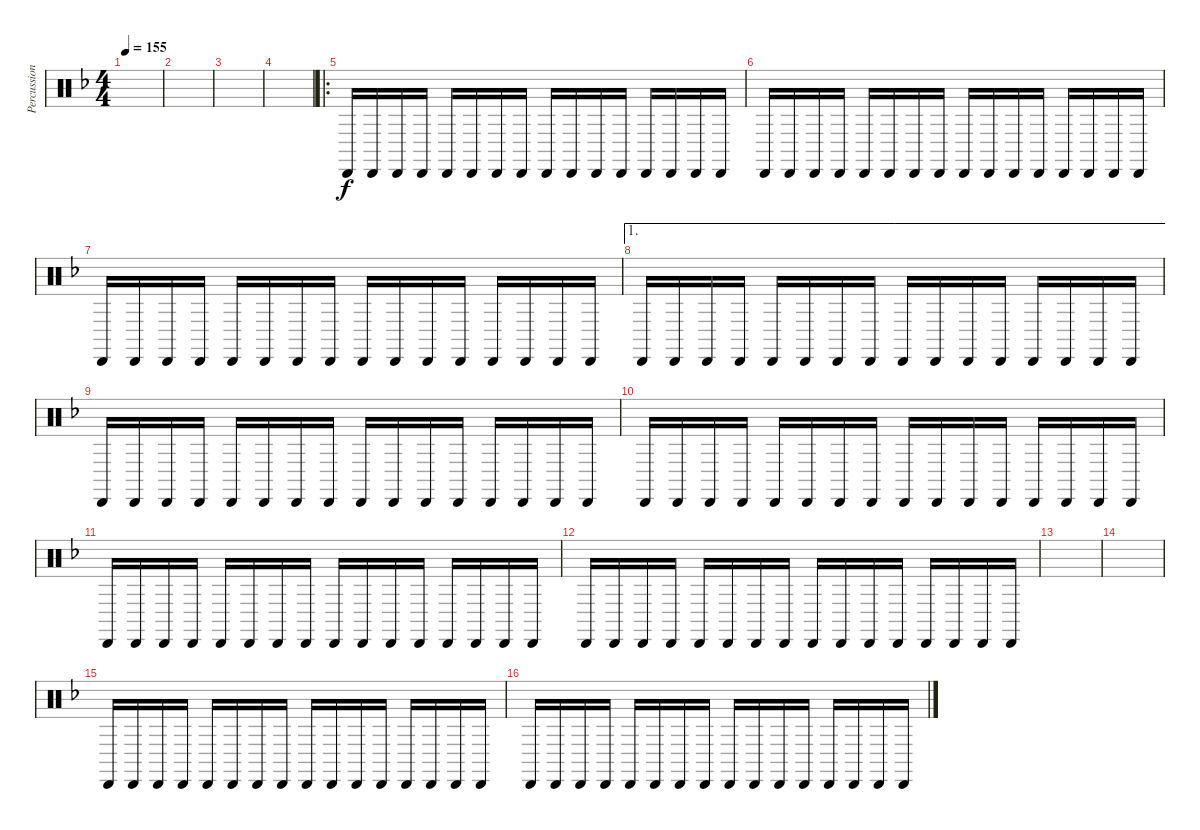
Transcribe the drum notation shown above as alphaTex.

\track ("Percussion" "Percussion") {instrument percussion}
\staff {score}
\articulation defaults
\ts (4 4)
\tempo 155
\clef neutral
\ks dminor
|
|
|
|
\ro "Cabasa (hit)".16 "Cabasa (hit)".16 "Cabasa (hit)".16 "Cabasa (hit)".16 "Cabasa (hit)".16 "Cabasa (hit)".16 "Cabasa (hit)".16 "Cabasa (hit)".16 "Cabasa (hit)".16 "Cabasa (hit)".16 "Cabasa (hit)".16 "Cabasa (hit)".16 "Cabasa (hit)".16 "Cabasa (hit)".16 "Cabasa (hit)".16 "Cabasa (hit)".16
|
"Cabasa (hit)".16 "Cabasa (hit)".16 "Cabasa (hit)".16 "Cabasa (hit)".16 "Cabasa (hit)".16 "Cabasa (hit)".16 "Cabasa (hit)".16 "Cabasa (hit)".16 "Cabasa (hit)".16 "Cabasa (hit)".16 "Cabasa (hit)".16 "Cabasa (hit)".16 "Cabasa (hit)".16 "Cabasa (hit)".16 "Cabasa (hit)".16 "Cabasa (hit)".16 |
"Cabasa (hit)".16 "Cabasa (hit)".16 "Cabasa (hit)".16 "Cabasa (hit)".16 "Cabasa (hit)".16 "Cabasa (hit)".16 "Cabasa (hit)".16 "Cabasa (hit)".16 "Cabasa (hit)".16 "Cabasa (hit)".16 "Cabasa (hit)".16 "Cabasa (hit)".16 "Cabasa (hit)".16 "Cabasa (hit)".16 "Cabasa (hit)".16 "Cabasa (hit)".16 |
\ae 1 "Cabasa (hit)".16 "Cabasa (hit)".16 "Cabasa (hit)".16 "Cabasa (hit)".16 "Cabasa (hit)".16 "Cabasa (hit)".16 "Cabasa (hit)".16 "Cabasa (hit)".16 "Cabasa (hit)".16 "Cabasa (hit)".16 "Cabasa (hit)".16 "Cabasa (hit)".16 "Cabasa (hit)".16 "Cabasa (hit)".16 "Cabasa (hit)".16 "Cabasa (hit)".16
|
"Cabasa (hit)".16 "Cabasa (hit)".16 "Cabasa (hit)".16 "Cabasa (hit)".16 "Cabasa (hit)".16 "Cabasa (hit)".16 "Cabasa (hit)".16 "Cabasa (hit)".16 "Cabasa (hit)".16 "Cabasa (hit)".16 "Cabasa (hit)".16 "Cabasa (hit)".16 "Cabasa (hit)".16 "Cabasa (hit)".16 "Cabasa (hit)".16 "Cabasa (hit)".16 |
"Cabasa (hit)".16 "Cabasa (hit)".16 "Cabasa (hit)".16 "Cabasa (hit)".16 "Cabasa (hit)".16 "Cabasa (hit)".16 "Cabasa (hit)".16 "Cabasa (hit)".16 "Cabasa (hit)".16 "Cabasa (hit)".16 "Cabasa (hit)".16 "Cabasa (hit)".16 "Cabasa (hit)".16 "Cabasa (hit)".16 "Cabasa (hit)".16 "Cabasa (hit)".16 |
"Cabasa (hit)".16 "Cabasa (hit)".16 "Cabasa (hit)".16 "Cabasa (hit)".16 "Cabasa (hit)".16 "Cabasa (hit)".16 "Cabasa (hit)".16 "Cabasa (hit)".16 "Cabasa (hit)".16 "Cabasa (hit)".16 "Cabasa (hit)".16 "Cabasa (hit)".16 "Cabasa (hit)".16 "Cabasa (hit)".16 "Cabasa (hit)".16 "Cabasa (hit)".16 |
"Cabasa (hit)".16 "Cabasa (hit)".16 "Cabasa (hit)".16 "Cabasa (hit)".16 "Cabasa (hit)".16 "Cabasa (hit)".16 "Cabasa (hit)".16 "Cabasa (hit)".16 "Cabasa (hit)".16 "Cabasa (hit)".16 "Cabasa (hit)".16 "Cabasa (hit)".16 "Cabasa (hit)".16 "Cabasa (hit)".16 "Cabasa (hit)".16 "Cabasa (hit)".16 |
|
|
"Cabasa (hit)".16 "Cabasa (hit)".16 "Cabasa (hit)".16 "Cabasa (hit)".16 "Cabasa (hit)".16 "Cabasa (hit)".16 "Cabasa (hit)".16 "Cabasa (hit)".16 "Cabasa (hit)".16 "Cabasa (hit)".16 "Cabasa (hit)".16 "Cabasa (hit)".16 "Cabasa (hit)".16 "Cabasa (hit)".16 "Cabasa (hit)".16 "Cabasa (hit)".16 |
"Cabasa (hit)".16 "Cabasa (hit)".16 "Cabasa (hit)".16 "Cabasa (hit)".16 "Cabasa (hit)".16 "Cabasa (hit)".16 "Cabasa (hit)".16 "Cabasa (hit)".16 "Cabasa (hit)".16 "Cabasa (hit)".16 "Cabasa (hit)".16 "Cabasa (hit)".16 "Cabasa (hit)".16 "Cabasa (hit)".16 "Cabasa (hit)".16 "Cabasa (hit)".16
